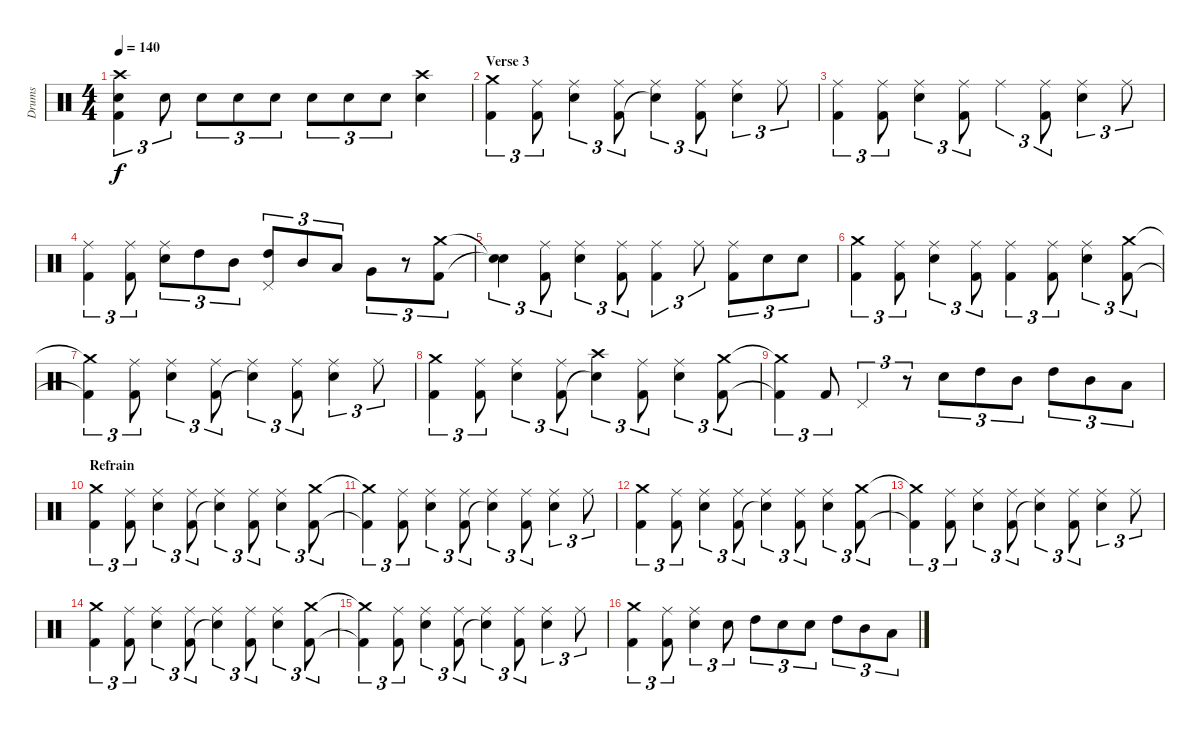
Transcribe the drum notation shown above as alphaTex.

\track ("Drums" "Drums") {instrument percussion}
\staff {score}
\articulation defaults
\ts (4 4)
\tempo 140
\clef neutral
\ks c
("Crash high (hit)" "Snare (hit) 2" "Kick (hit) 2").4{tu (3 2) dy f} "Snare (hit) 2".8{tu (3 2)} "Snare (hit) 2".8{tu (3 2)} "Snare (hit) 2".8{tu (3 2)} "Snare (hit) 2".8{tu (3 2)} "Snare (hit) 2".8{tu (3 2)} "Snare (hit) 2".8{tu (3 2)} "Snare (hit) 2".8{tu (3 2)} ("Crash high (hit)" "Snare (hit) 2").4 |
\section ("" "Verse 3")
("Crash medium (hit)" "Kick (hit) 2").4{tu (3 2)} ("Ride (middle)" "Kick (hit) 2").8{tu (3 2)} ("Ride (middle)" "Snare (hit) 2").4{tu (3 2)} ("Ride (middle)" "Kick (hit) 2").8{tu (3 2)} ("Ride (middle)" "Snare (hit)"{t}).4{tu (3 2)} ("Ride (middle)" "Kick (hit) 2").8{tu (3 2)} ("Ride (middle)" "Snare (hit) 2").4{tu (3 2)} "Ride (middle)".8{tu (3 2)} |
("Ride (middle)" "Kick (hit) 2").4{tu (3 2)} ("Ride (middle)" "Kick (hit) 2").8{tu (3 2)} ("Ride (middle)" "Snare (hit) 2").4{tu (3 2)} ("Ride (middle)" "Kick (hit) 2").8{tu (3 2)} "Ride (middle)".4{tu (3 2)} ("Ride (middle)" "Kick (hit) 2").8{tu (3 2)} ("Ride (middle)" "Snare (hit) 2").4{tu (3 2)} "Ride (middle)".8{tu (3 2)} |
("Ride (middle)" "Kick (hit) 2").4{tu (3 2)} ("Ride (middle)" "Kick (hit) 2").8{tu (3 2)} ("Ride (middle)" "Snare (hit) 2").8{tu (3 2)} "High Tom (hit)".8{tu (3 2)} "Mid Tom (hit)".8{tu (3 2)} ("Pedal Hi-Hat (hit)" "High Tom (hit)").8{tu (3 2)} "Mid Tom (hit)".8{tu (3 2)} "Low Tom (hit)".8{tu (3 2)} "Very Low Tom (hit)".8{tu (3 2)} r.8{tu (3 2)} ("Crash medium (hit)" "Kick (hit) 2").8{tu (3 2)} |
("Snare (hit)"{t} "Snare (hit)"{t}).4{tu (3 2)} ("Ride (middle)" "Kick (hit) 2").8{tu (3 2)} ("Ride (middle)" "Snare (hit) 2").4{tu (3 2)} ("Ride (middle)" "Kick (hit) 2").8{tu (3 2)} ("Ride (middle)" "Kick (hit) 2").4{tu (3 2)} "Ride (middle)".8{tu (3 2)} ("Ride (middle)" "Kick (hit) 2").8{tu (3 2)} "Snare (hit) 2".8{tu (3 2)} "Snare (hit) 2".8{tu (3 2)} |
("Crash medium (hit)" "Kick (hit) 2").4{tu (3 2)} ("Ride (middle)" "Kick (hit) 2").8{tu (3 2)} ("Ride (middle)" "Snare (hit) 2").4{tu (3 2)} ("Ride (middle)" "Kick (hit) 2").8{tu (3 2)} ("Ride (middle)" "Kick (hit) 2").4{tu (3 2)} ("Ride (middle)" "Kick (hit) 2").8{tu (3 2)} ("Ride (middle)" "Snare (hit) 2").4{tu (3 2)} ("Crash medium (hit)" "Kick (hit) 2").8{tu (3 2)} |
("Crash medium (hit)"{t} "Kick (hit) 2"{t}).4{tu (3 2)} ("Ride (middle)" "Kick (hit) 2").8{tu (3 2)} ("Ride (middle)" "Snare (hit) 2").4{tu (3 2)} ("Ride (middle)" "Kick (hit) 2").8{tu (3 2)} ("Ride (middle)" "Snare (hit)"{t}).4{tu (3 2)} ("Ride (middle)" "Kick (hit) 2").8{tu (3 2)} ("Ride (middle)" "Snare (hit) 2").4{tu (3 2)} "Ride (middle)".8{tu (3 2)} |
("Crash medium (hit)" "Kick (hit) 2").4{tu (3 2)} ("Ride (middle)" "Kick (hit) 2").8{tu (3 2)} ("Ride (middle)" "Snare (hit) 2").4{tu (3 2)} ("Ride (middle)" "Kick (hit) 2").8{tu (3 2)} ("Crash high (hit)" "Snare (hit)"{t}).4{tu (3 2)} ("Ride (middle)" "Kick (hit) 2").8{tu (3 2)} ("Ride (middle)" "Snare (hit) 2").4{tu (3 2)} ("Crash medium (hit)" "Kick (hit) 2").8{tu (3 2)} |
("Crash medium (hit)"{t} "Kick (hit) 2"{t}).4{tu (3 2)} "Kick (hit) 2".8{tu (3 2)} "Pedal Hi-Hat (hit)".4{tu (3 2)} r.8{tu (3 2)} "Snare (hit) 2".8{tu (3 2)} "High Tom (hit)".8{tu (3 2)} "Mid Tom (hit)".8{tu (3 2)} "High Tom (hit)".8{tu (3 2)} "Mid Tom (hit)".8{tu (3 2)} "Low Tom (hit)".8{tu (3 2)} |
\section ("" "Refrain")
("Crash medium (hit)" "Kick (hit) 2").4{tu (3 2)} ("Ride (middle)" "Kick (hit) 2").8{tu (3 2)} ("Ride (middle)" "Snare (hit) 2").4{tu (3 2)} ("Ride (middle)" "Kick (hit) 2").8{tu (3 2)} ("Ride (middle)" "Snare (hit)"{t}).4{tu (3 2)} ("Ride (middle)" "Kick (hit) 2").8{tu (3 2)} ("Ride (middle)" "Snare (hit) 2").4{tu (3 2)} ("Crash medium (hit)" "Kick (hit) 2").8{tu (3 2)} |
("Crash medium (hit)"{t} "Kick (hit) 2"{t}).4{tu (3 2)} ("Ride (middle)" "Kick (hit) 2").8{tu (3 2)} ("Ride (middle)" "Snare (hit) 2").4{tu (3 2)} ("Ride (middle)" "Kick (hit) 2").8{tu (3 2)} ("Ride (middle)" "Snare (hit)"{t}).4{tu (3 2)} ("Ride (middle)" "Kick (hit) 2").8{tu (3 2)} ("Ride (middle)" "Snare (hit) 2").4{tu (3 2)} "Ride (middle)".8{tu (3 2)} |
("Crash medium (hit)" "Kick (hit) 2").4{tu (3 2)} ("Ride (middle)" "Kick (hit) 2").8{tu (3 2)} ("Ride (middle)" "Snare (hit) 2").4{tu (3 2)} ("Ride (middle)" "Kick (hit) 2").8{tu (3 2)} ("Ride (middle)" "Snare (hit)"{t}).4{tu (3 2)} ("Ride (middle)" "Kick (hit) 2").8{tu (3 2)} ("Ride (middle)" "Snare (hit) 2").4{tu (3 2)} ("Crash medium (hit)" "Kick (hit) 2").8{tu (3 2)} |
("Crash medium (hit)"{t} "Kick (hit) 2"{t}).4{tu (3 2)} ("Ride (middle)" "Kick (hit) 2").8{tu (3 2)} ("Ride (middle)" "Snare (hit) 2").4{tu (3 2)} ("Ride (middle)" "Kick (hit) 2").8{tu (3 2)} ("Ride (middle)" "Snare (hit)"{t}).4{tu (3 2)} ("Ride (middle)" "Kick (hit) 2").8{tu (3 2)} ("Ride (middle)" "Snare (hit) 2").4{tu (3 2)} "Ride (middle)".8{tu (3 2)} |
("Crash medium (hit)" "Kick (hit) 2").4{tu (3 2)} ("Ride (middle)" "Kick (hit) 2").8{tu (3 2)} ("Ride (middle)" "Snare (hit) 2").4{tu (3 2)} ("Ride (middle)" "Kick (hit) 2").8{tu (3 2)} ("Ride (middle)" "Snare (hit)"{t}).4{tu (3 2)} ("Ride (middle)" "Kick (hit) 2").8{tu (3 2)} ("Ride (middle)" "Snare (hit) 2").4{tu (3 2)} ("Crash medium (hit)" "Kick (hit) 2").8{tu (3 2)} |
("Crash medium (hit)"{t} "Kick (hit) 2"{t}).4{tu (3 2)} ("Ride (middle)" "Kick (hit) 2").8{tu (3 2)} ("Ride (middle)" "Snare (hit) 2").4{tu (3 2)} ("Ride (middle)" "Kick (hit) 2").8{tu (3 2)} ("Ride (middle)" "Snare (hit)"{t}).4{tu (3 2)} ("Ride (middle)" "Kick (hit) 2").8{tu (3 2)} ("Ride (middle)" "Snare (hit) 2").4{tu (3 2)} "Ride (middle)".8{tu (3 2)} |
("Crash medium (hit)" "Kick (hit) 2").4{tu (3 2)} ("Ride (middle)" "Kick (hit) 2").8{tu (3 2)} ("Ride (middle)" "Snare (hit) 2").4{tu (3 2)} "Snare (hit) 2".8{tu (3 2)} "High Tom (hit)".8{tu (3 2)} "Snare (hit) 2".8{tu (3 2)} "Snare (hit) 2".8{tu (3 2)} "High Tom (hit)".8{tu (3 2)} "Mid Tom (hit)".8{tu (3 2)} "Low Tom (hit)".8{tu (3 2)}
